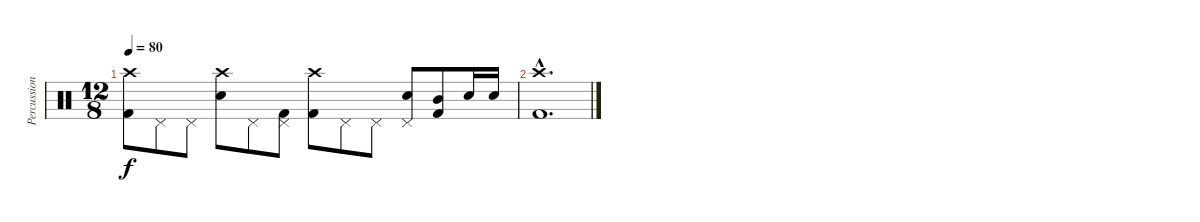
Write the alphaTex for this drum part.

\track ("Percussions" "Percussion") {instrument percussion}
\staff {score}
\articulation defaults
\ts (12 8)
\tempo 80
\clef neutral
\ks c
("Crash high (hit)" "Kick (hit) 2").8{dy f} "Pedal Hi-Hat (hit)".8 "Pedal Hi-Hat (hit)".8 ("Crash high (hit)" "Electric Snare (hit)").8 "Pedal Hi-Hat (hit)".8 ("Pedal Hi-Hat (hit)" "Kick (hit) 2").8 ("Crash high (hit)" "Kick (hit) 2").8 "Pedal Hi-Hat (hit)".8 "Pedal Hi-Hat (hit)".8 ("Pedal Hi-Hat (hit)" "Electric Snare (hit)").8 ("Mid Tom (hit)" "Kick (hit) 2").8 "Electric Snare (hit)".16 "Electric Snare (hit)".16 |
("Crash high (hit)"{hac} "Kick (hit) 2"{hac}).1{d}
